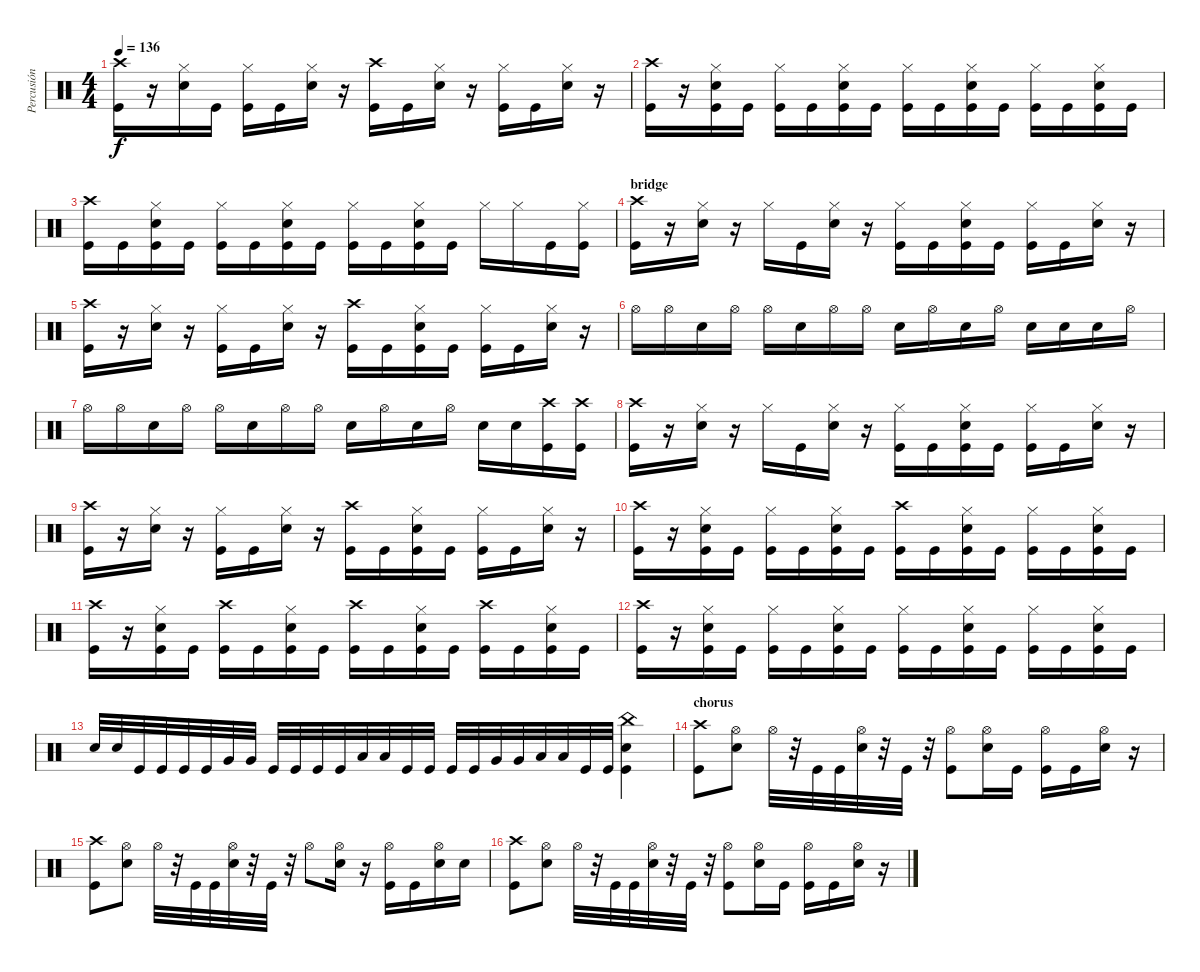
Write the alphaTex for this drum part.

\track ("Percusión" "Percusión") {instrument percussion}
\staff {score}
\articulation defaults
\ts (4 4)
\tempo 136
\clef neutral
\ks c
("Crash high (hit)" "Kick (hit)").16{dy f} r.16 ("Hi-Hat (closed)" "Snare (hit) 2").16 "Kick (hit)".16 ("Hi-Hat (closed)" "Kick (hit)").16 "Kick (hit)".16 ("Hi-Hat (closed)" "Snare (hit) 2").16 r.16 ("Crash high (hit)" "Kick (hit)").16 "Kick (hit)".16 ("Hi-Hat (closed)" "Snare (hit) 2").16 r.16 ("Hi-Hat (closed)" "Kick (hit)").16 "Kick (hit)".16 ("Hi-Hat (closed)" "Snare (hit) 2").16 r.16 |
("Crash high (hit)" "Kick (hit)").16 r.16 ("Hi-Hat (closed)" "Snare (hit) 2" "Kick (hit)").16 "Kick (hit)".16 ("Hi-Hat (closed)" "Kick (hit)").16 "Kick (hit)".16 ("Hi-Hat (closed)" "Snare (hit) 2" "Kick (hit)").16 "Kick (hit)".16 ("Hi-Hat (closed)" "Kick (hit)").16 "Kick (hit)".16 ("Hi-Hat (closed)" "Snare (hit) 2" "Kick (hit)").16 "Kick (hit)".16 ("Hi-Hat (closed)" "Kick (hit)").16 "Kick (hit)".16 ("Hi-Hat (closed)" "Snare (hit) 2" "Kick (hit)").16 "Kick (hit)".16 |
("Crash high (hit)" "Kick (hit)").16 "Kick (hit)".16 ("Hi-Hat (closed)" "Snare (hit) 2" "Kick (hit)").16 "Kick (hit)".16 ("Hi-Hat (closed)" "Kick (hit)").16 "Kick (hit)".16 ("Hi-Hat (closed)" "Snare (hit) 2" "Kick (hit)").16 "Kick (hit)".16 ("Hi-Hat (closed)" "Kick (hit)").16 "Kick (hit)".16 ("Hi-Hat (closed)" "Snare (hit) 2" "Kick (hit)").16 "Kick (hit)".16 "Hi-Hat (closed)".16 "Hi-Hat (closed)".16 "Kick (hit)".16 ("Hi-Hat (closed)" "Kick (hit)").16 |
\section ("" "bridge")
("Crash high (hit)" "Kick (hit)").16 r.16 ("Hi-Hat (closed)" "Snare (hit) 2").16 r.16 "Hi-Hat (closed)".16 "Kick (hit)".16 ("Hi-Hat (closed)" "Snare (hit) 2").16 r.16 ("Hi-Hat (closed)" "Kick (hit)").16 "Kick (hit)".16 ("Hi-Hat (closed)" "Snare (hit) 2" "Kick (hit)").16 "Kick (hit)".16 ("Hi-Hat (closed)" "Kick (hit)").16 "Kick (hit)".16 ("Hi-Hat (closed)" "Snare (hit) 2").16 r.16 |
("Crash high (hit)" "Kick (hit)").16 r.16 ("Hi-Hat (closed)" "Snare (hit) 2").16 r.16 ("Hi-Hat (closed)" "Kick (hit)").16 "Kick (hit)".16 ("Hi-Hat (closed)" "Snare (hit) 2").16 r.16 ("Crash high (hit)" "Kick (hit)").16 "Kick (hit)".16 ("Hi-Hat (closed)" "Snare (hit) 2" "Kick (hit)").16 "Kick (hit)".16 ("Hi-Hat (closed)" "Kick (hit)").16 "Kick (hit)".16 ("Hi-Hat (closed)" "Snare (hit) 2").16 r.16 |
"Hi-Hat (open)".16 "Hi-Hat (open)".16 "Snare (hit) 2".16 "Hi-Hat (open)".16 "Hi-Hat (open)".16 "Snare (hit) 2".16 "Hi-Hat (open)".16 "Hi-Hat (open)".16 "Snare (hit) 2".16 "Hi-Hat (open)".16 "Snare (hit) 2".16 "Hi-Hat (open)".16 "Snare (hit) 2".16 "Snare (hit) 2".16 "Snare (hit) 2".16 "Hi-Hat (open)".16 |
"Hi-Hat (open)".16 "Hi-Hat (open)".16 "Snare (hit) 2".16 "Hi-Hat (open)".16 "Hi-Hat (open)".16 "Snare (hit) 2".16 "Hi-Hat (open)".16 "Hi-Hat (open)".16 "Snare (hit) 2".16 "Hi-Hat (open)".16 "Snare (hit) 2".16 "Hi-Hat (open)".16 "Snare (hit) 2".16 "Snare (hit) 2".16 ("Crash high (hit)" "Kick (hit)").16 ("Crash high (hit)" "Kick (hit)").16 |
("Crash high (hit)" "Kick (hit)").16 r.16 ("Hi-Hat (closed)" "Snare (hit) 2").16 r.16 "Hi-Hat (closed)".16 "Kick (hit)".16 ("Hi-Hat (closed)" "Snare (hit) 2").16 r.16 ("Hi-Hat (closed)" "Kick (hit)").16 "Kick (hit)".16 ("Hi-Hat (closed)" "Snare (hit) 2" "Kick (hit)").16 "Kick (hit)".16 ("Hi-Hat (closed)" "Kick (hit)").16 "Kick (hit)".16 ("Hi-Hat (closed)" "Snare (hit) 2").16 r.16 |
("Crash high (hit)" "Kick (hit)").16 r.16 ("Hi-Hat (closed)" "Snare (hit) 2").16 r.16 ("Hi-Hat (closed)" "Kick (hit)").16 "Kick (hit)".16 ("Hi-Hat (closed)" "Snare (hit) 2").16 r.16 ("Crash high (hit)" "Kick (hit)").16 "Kick (hit)".16 ("Hi-Hat (closed)" "Snare (hit) 2" "Kick (hit)").16 "Kick (hit)".16 ("Hi-Hat (closed)" "Kick (hit)").16 "Kick (hit)".16 ("Hi-Hat (closed)" "Snare (hit) 2").16 r.16 |
("Crash high (hit)" "Kick (hit)").16 r.16 ("Hi-Hat (closed)" "Snare (hit) 2" "Kick (hit)").16 "Kick (hit)".16 ("Hi-Hat (closed)" "Kick (hit)").16 "Kick (hit)".16 ("Hi-Hat (closed)" "Snare (hit) 2" "Kick (hit)").16 "Kick (hit)".16 ("Crash high (hit)" "Kick (hit)").16 "Kick (hit)".16 ("Hi-Hat (closed)" "Snare (hit) 2" "Kick (hit)").16 "Kick (hit)".16 ("Hi-Hat (closed)" "Kick (hit)").16 "Kick (hit)".16 ("Hi-Hat (closed)" "Snare (hit) 2" "Kick (hit)").16 "Kick (hit)".16 |
("Crash high (hit)" "Kick (hit)").16 r.16 ("Hi-Hat (closed)" "Snare (hit) 2" "Kick (hit)").16 "Kick (hit)".16 ("Crash high (hit)" "Kick (hit)").16 "Kick (hit)".16 ("Hi-Hat (closed)" "Snare (hit) 2" "Kick (hit)").16 "Kick (hit)".16 ("Crash high (hit)" "Kick (hit)").16 "Kick (hit)".16 ("Hi-Hat (closed)" "Snare (hit) 2" "Kick (hit)").16 "Kick (hit)".16 ("Crash high (hit)" "Kick (hit)").16 "Kick (hit)".16 ("Hi-Hat (closed)" "Snare (hit) 2" "Kick (hit)").16 "Kick (hit)".16 |
("Crash high (hit)" "Kick (hit)").16 r.16 ("Hi-Hat (closed)" "Snare (hit) 2" "Kick (hit)").16 "Kick (hit)".16 ("Hi-Hat (closed)" "Kick (hit)").16 "Kick (hit)".16 ("Hi-Hat (closed)" "Snare (hit) 2" "Kick (hit)").16 "Kick (hit)".16 ("Hi-Hat (closed)" "Kick (hit)").16 "Kick (hit)".16 ("Hi-Hat (closed)" "Snare (hit) 2" "Kick (hit)").16 "Kick (hit)".16 ("Hi-Hat (closed)" "Kick (hit)").16 "Kick (hit)".16 ("Hi-Hat (closed)" "Snare (hit) 2" "Kick (hit)").16 "Kick (hit)".16 |
"Snare (hit) 2".32 "Snare (hit) 2".32 "Kick (hit)".32 "Kick (hit)".32 "Kick (hit)".32 "Kick (hit)".32 "Very Low Tom (hit)".32 "Very Low Tom (hit)".32 "Kick (hit)".32 "Kick (hit)".32 "Kick (hit)".32 "Kick (hit)".32 "Low Tom (hit)".32 "Low Tom (hit)".32 "Kick (hit)".32 "Kick (hit)".32 "Kick (hit)".32 "Kick (hit)".32 "Very Low Tom (hit)".32 "Very Low Tom (hit)".32 "Low Tom (hit)".32 "Low Tom (hit)".32 "Kick (hit)".32 "Kick (hit)".32 ("China (hit)" "Snare (hit) 2" "Kick (hit)").4 |
\section ("" "chorus")
("Crash high (hit)" "Kick (hit)").8 ("Hi-Hat (open)" "Snare (hit) 2").8 "Hi-Hat (open)".32 r.32 "Kick (hit)".32 "Kick (hit)".32 ("Hi-Hat (open)" "Snare (hit) 2").32 r.32 "Kick (hit)".32 r.32 ("Hi-Hat (open)" "Kick (hit)").8 ("Hi-Hat (open)" "Snare (hit) 2").16 "Kick (hit)".16 ("Hi-Hat (open)" "Kick (hit)").16 "Kick (hit)".16 ("Hi-Hat (open)" "Snare (hit) 2").16 r.16 |
("Crash high (hit)" "Kick (hit)").8 ("Hi-Hat (open)" "Snare (hit) 2").8 "Hi-Hat (open)".32 r.32 "Kick (hit)".32 "Kick (hit)".32 ("Hi-Hat (open)" "Snare (hit) 2").32 r.32 "Kick (hit)".32 r.32 "Hi-Hat (open)".8 ("Hi-Hat (open)" "Snare (hit) 2").16 r.16 ("Hi-Hat (open)" "Kick (hit)").16 "Kick (hit)".16 ("Hi-Hat (open)" "Snare (hit) 2").16 "Snare (hit) 2".16 |
("Crash high (hit)" "Kick (hit)").8 ("Hi-Hat (open)" "Snare (hit) 2").8 "Hi-Hat (open)".32 r.32 "Kick (hit)".32 "Kick (hit)".32 ("Hi-Hat (open)" "Snare (hit) 2").32 r.32 "Kick (hit)".32 r.32 ("Hi-Hat (open)" "Kick (hit)").8 ("Hi-Hat (open)" "Snare (hit) 2").16 "Kick (hit)".16 ("Hi-Hat (open)" "Kick (hit)").16 "Kick (hit)".16 ("Hi-Hat (open)" "Snare (hit) 2").16 r.16
